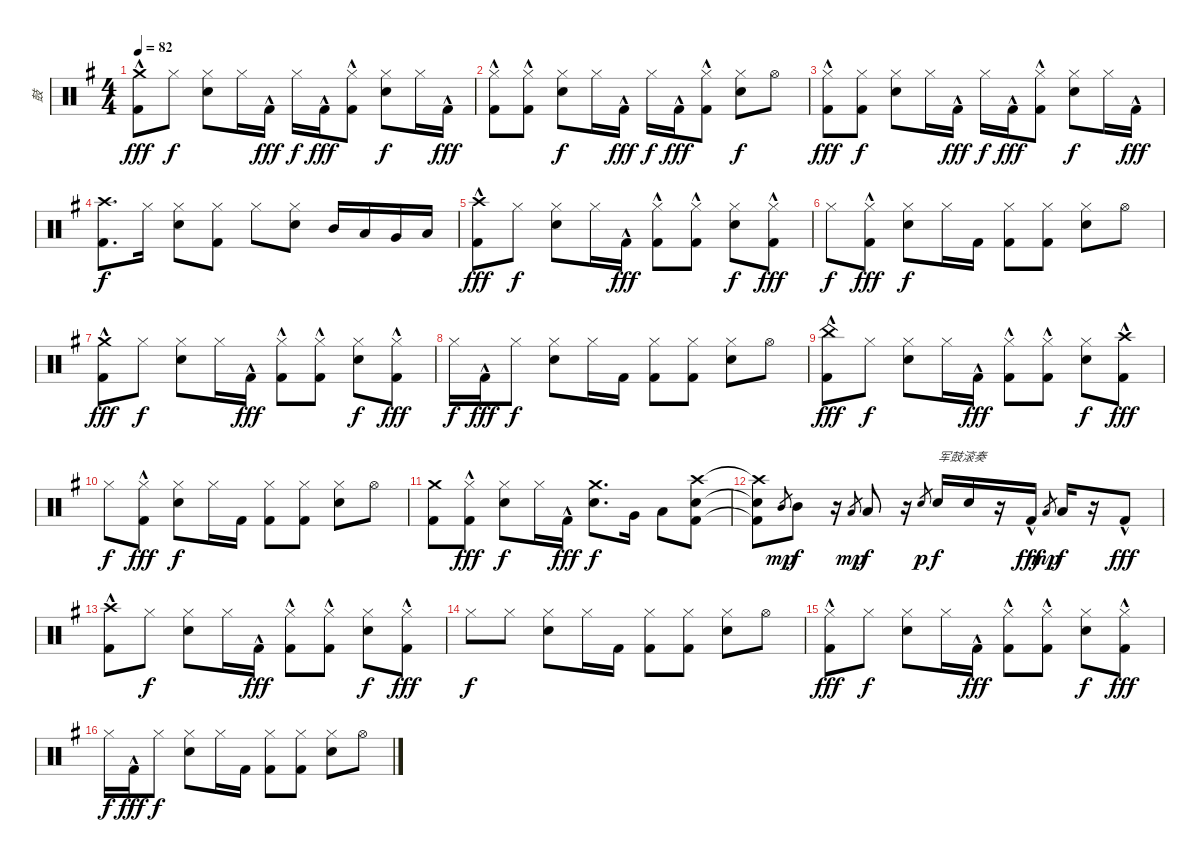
\track ("鼓" "鼓") {instrument percussion}
\staff {score}
\articulation defaults
\ts (4 4)
\tempo 82
\clef neutral
\ks g
("Crash medium (hit)" "Kick (hit) 2"{hac}).8{dy fff} "Hi-Hat (closed)".8{dy f} ("Hi-Hat (closed)" "Electric Snare (hit)").8 "Hi-Hat (closed)".16 "Kick (hit) 2"{hac}.16{dy fff} "Hi-Hat (closed)".16{dy f} "Kick (hit) 2"{hac}.16{dy fff} ("Hi-Hat (closed)" "Kick (hit) 2"{hac}).8 ("Hi-Hat (closed)" "Electric Snare (hit)").8{dy f} "Hi-Hat (closed)".16 "Kick (hit) 2"{hac}.16{dy fff} |
("Hi-Hat (closed)" "Kick (hit) 2"{hac}).8 ("Hi-Hat (closed)" "Kick (hit) 2"{hac}).8 ("Hi-Hat (closed)" "Electric Snare (hit)").8{dy f} "Hi-Hat (closed)".16 "Kick (hit) 2"{hac}.16{dy fff} "Hi-Hat (closed)".16{dy f} "Kick (hit) 2"{hac}.16{dy fff} ("Hi-Hat (closed)" "Kick (hit) 2"{hac}).8 ("Hi-Hat (closed)" "Electric Snare (hit)").8{dy f} "Hi-Hat (open)".8 |
("Hi-Hat (closed)" "Kick (hit) 2"{hac}).8{dy fff} ("Hi-Hat (closed)" "Kick (hit) 2").8{dy f} ("Hi-Hat (closed)" "Electric Snare (hit)").8 "Hi-Hat (closed)".16 "Kick (hit) 2"{hac}.16{dy fff} "Hi-Hat (closed)".16{dy f} "Kick (hit) 2"{hac}.16{dy fff} ("Hi-Hat (closed)" "Kick (hit) 2"{hac}).8 ("Hi-Hat (closed)" "Electric Snare (hit)").8{dy f} "Hi-Hat (closed)".16 "Kick (hit) 2"{hac}.16{dy fff} |
("Crash high (hit)" "Kick (hit) 2").8{d dy f} "Hi-Hat (closed)".16 ("Hi-Hat (closed)" "Electric Snare (hit)").8 ("Hi-Hat (closed)" "Kick (hit) 2").8 "Hi-Hat (closed)".8 ("Hi-Hat (closed)" "Electric Snare (hit)").8 "Mid Tom (hit)".16 "Low Tom (hit)".16 "Very Low Tom (hit)".16 "Low Floor Tom (hit)".16 |
("Crash high (hit)" "Kick (hit) 2"{hac}).8{dy fff} "Hi-Hat (closed)".8{dy f} ("Hi-Hat (closed)" "Electric Snare (hit)").8 "Hi-Hat (closed)".16 "Kick (hit) 2"{hac}.16{dy fff} ("Hi-Hat (closed)" "Kick (hit) 2"{hac}).8 ("Hi-Hat (closed)" "Kick (hit) 2"{hac}).8 ("Hi-Hat (closed)" "Electric Snare (hit)").8{dy f} ("Hi-Hat (closed)" "Kick (hit) 2"{hac}).8{dy fff} |
"Hi-Hat (closed)".8{dy f} ("Hi-Hat (closed)" "Kick (hit) 2"{hac}).8{dy fff} ("Hi-Hat (closed)" "Electric Snare (hit)").8{dy f} "Hi-Hat (closed)".16 "Kick (hit) 2".16 ("Hi-Hat (closed)" "Kick (hit) 2").8 ("Hi-Hat (closed)" "Kick (hit) 2").8 ("Hi-Hat (closed)" "Electric Snare (hit)").8 "Hi-Hat (open)".8 |
("Crash medium (hit)" "Kick (hit) 2"{hac}).8{dy fff} "Hi-Hat (closed)".8{dy f} ("Hi-Hat (closed)" "Electric Snare (hit)").8 "Hi-Hat (closed)".16 "Kick (hit) 2"{hac}.16{dy fff} ("Hi-Hat (closed)" "Kick (hit) 2"{hac}).8 ("Hi-Hat (closed)" "Kick (hit) 2"{hac}).8 ("Hi-Hat (closed)" "Electric Snare (hit)").8{dy f} ("Hi-Hat (closed)" "Kick (hit) 2"{hac}).8{dy fff} |
"Hi-Hat (closed)".16{dy f} "Kick (hit) 2"{hac}.16{dy fff} "Hi-Hat (closed)".8{dy f} ("Hi-Hat (closed)" "Electric Snare (hit)").8 "Hi-Hat (closed)".16 "Kick (hit) 2".16 ("Hi-Hat (closed)" "Kick (hit) 2").8 ("Hi-Hat (closed)" "Kick (hit) 2").8 ("Hi-Hat (closed)" "Electric Snare (hit)").8 "Hi-Hat (open)".8 |
("China (hit)" "Kick (hit) 2"{hac}).8{dy fff} "Hi-Hat (closed)".8{dy f} ("Hi-Hat (closed)" "Electric Snare (hit)").8 "Hi-Hat (closed)".16 "Kick (hit) 2"{hac}.16{dy fff} ("Hi-Hat (closed)" "Kick (hit) 2"{hac}).8 ("Hi-Hat (closed)" "Kick (hit) 2"{hac}).8 ("Hi-Hat (closed)" "Electric Snare (hit)").8{dy f} ("Crash high (hit)" "Kick (hit) 2"{hac}).8{dy fff} |
"Hi-Hat (closed)".8{dy f} ("Hi-Hat (closed)" "Kick (hit) 2"{hac}).8{dy fff} ("Hi-Hat (closed)" "Electric Snare (hit)").8{dy f} "Hi-Hat (closed)".16 "Kick (hit) 2".16 ("Hi-Hat (closed)" "Kick (hit) 2").8 ("Hi-Hat (closed)" "Kick (hit) 2").8 ("Hi-Hat (closed)" "Electric Snare (hit)").8 "Hi-Hat (open)".8 |
("Crash medium (hit)" "Kick (hit) 2").8 ("Hi-Hat (closed)" "Kick (hit) 2"{hac}).8{dy fff} ("Hi-Hat (closed)" "Electric Snare (hit)").8{dy f} "Hi-Hat (closed)".16 "Kick (hit) 2"{hac}.16{dy fff} ("Crash medium (hit)" "Electric Snare (hit)").8{d dy f} "Very Low Tom (hit)".16 "Low Floor Tom (hit)".8 ("Crash high (hit)" "Electric Snare (hit)" "Kick (hit) 2").8 |
("Crash high (hit)"{t} "Electric Snare (hit)"{t} "Kick (hit) 2"{t}).8 "Mid Tom (hit)".8{gr dy mp} "Mid Tom (hit)".8{dy f} r.16 "Low Tom (hit)".8{gr dy mp} "Low Tom (hit)".8{dy f} r.16 "Electric Snare (hit)".8{gr dy p} "Electric Snare (hit)".16{txt "军鼓滚奏" dy f} "Electric Snare (hit)".16 r.16 "Kick (hit) 2"{hac}.16{dy fff} "Low Floor Tom (hit)".8{gr dy mp} "Low Floor Tom (hit)".16{dy f} r.16 "Kick (hit) 2"{hac}.8{dy fff} |
("Crash high (hit)" "Kick (hit) 2"{hac}).8 "Hi-Hat (closed)".8{dy f} ("Hi-Hat (closed)" "Electric Snare (hit)").8 "Hi-Hat (closed)".16 "Kick (hit) 2"{hac}.16{dy fff} ("Hi-Hat (closed)" "Kick (hit) 2"{hac}).8 ("Hi-Hat (closed)" "Kick (hit) 2"{hac}).8 ("Hi-Hat (closed)" "Electric Snare (hit)").8{dy f} ("Hi-Hat (closed)" "Kick (hit) 2"{hac}).8{dy fff} |
"Hi-Hat (closed)".8{dy f} "Hi-Hat (closed)".8 ("Hi-Hat (closed)" "Electric Snare (hit)").8 "Hi-Hat (closed)".16 "Kick (hit) 2".16 ("Hi-Hat (closed)" "Kick (hit) 2").8 ("Hi-Hat (closed)" "Kick (hit) 2").8 ("Hi-Hat (closed)" "Electric Snare (hit)").8 "Hi-Hat (open)".8 |
("Hi-Hat (closed)" "Kick (hit) 2"{hac}).8{dy fff} "Hi-Hat (closed)".8{dy f} ("Hi-Hat (closed)" "Electric Snare (hit)").8 "Hi-Hat (closed)".16 "Kick (hit) 2"{hac}.16{dy fff} ("Hi-Hat (closed)" "Kick (hit) 2"{hac}).8 ("Hi-Hat (closed)" "Kick (hit) 2"{hac}).8 ("Hi-Hat (closed)" "Electric Snare (hit)").8{dy f} ("Hi-Hat (closed)" "Kick (hit) 2"{hac}).8{dy fff} |
"Hi-Hat (closed)".16{dy f} "Kick (hit) 2"{hac}.16{dy fff} "Hi-Hat (closed)".8{dy f} ("Hi-Hat (closed)" "Electric Snare (hit)").8 "Hi-Hat (closed)".16 "Kick (hit) 2".16 ("Hi-Hat (closed)" "Kick (hit) 2").8 ("Hi-Hat (closed)" "Kick (hit) 2").8 ("Hi-Hat (closed)" "Electric Snare (hit)").8 "Hi-Hat (open)".8
